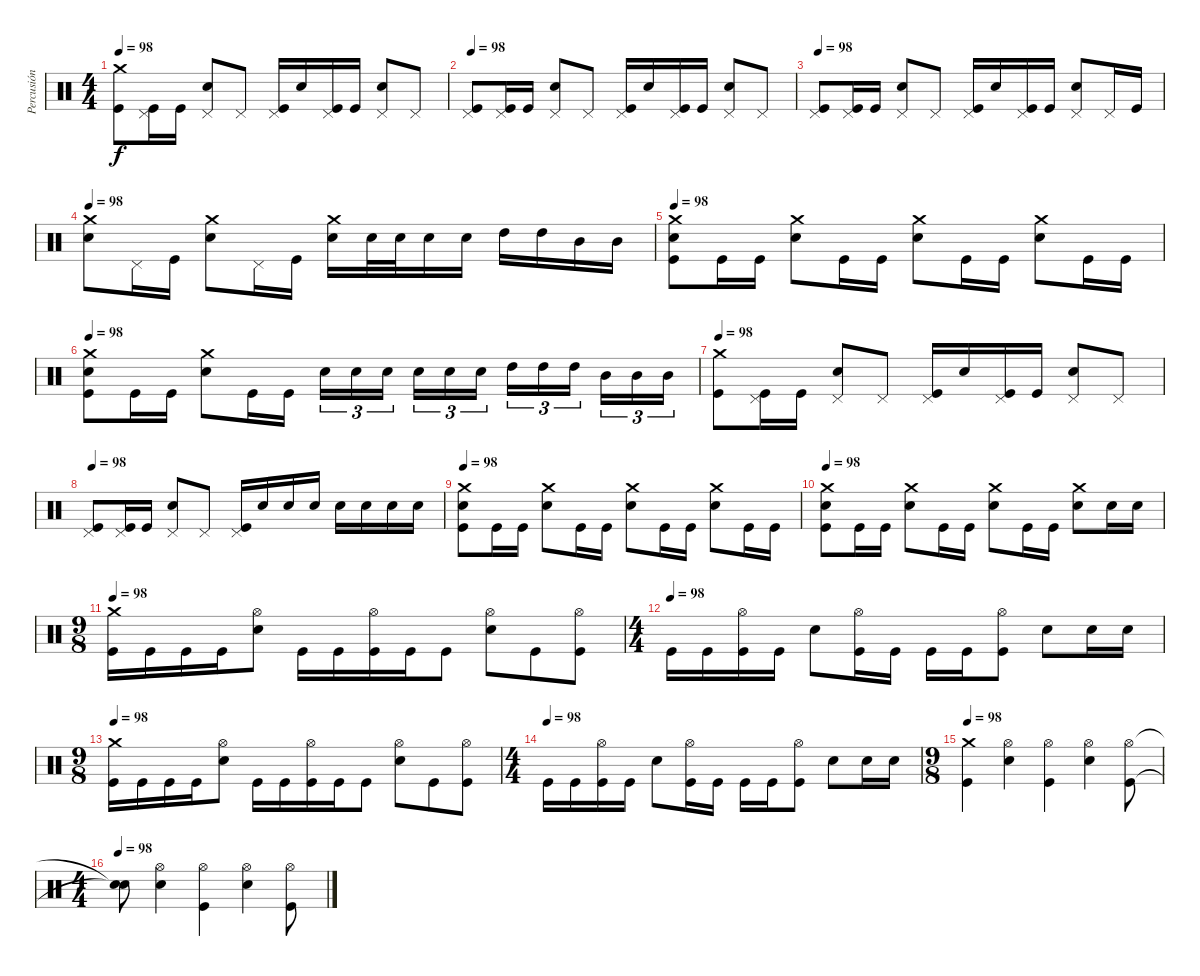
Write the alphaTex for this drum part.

\track ("Percusión" "Percusión") {instrument percussion}
\staff {score}
\articulation defaults
\ts (4 4)
\tempo 98
\clef neutral
\ks c
("Crash medium (hit)" "Kick (hit)").8{dy f} ("Pedal Hi-Hat (hit)" "Kick (hit)").16 "Kick (hit)".16 ("Pedal Hi-Hat (hit)" "Electric Snare (hit)").8 "Pedal Hi-Hat (hit)".8 ("Pedal Hi-Hat (hit)" "Kick (hit)").16 "Electric Snare (hit)".16 ("Pedal Hi-Hat (hit)" "Kick (hit)").16 "Kick (hit)".16 ("Pedal Hi-Hat (hit)" "Electric Snare (hit)").8 "Pedal Hi-Hat (hit)".8 |
\tempo 98
("Pedal Hi-Hat (hit)" "Kick (hit)").8 ("Pedal Hi-Hat (hit)" "Kick (hit)").16 "Kick (hit)".16 ("Pedal Hi-Hat (hit)" "Electric Snare (hit)").8 "Pedal Hi-Hat (hit)".8 ("Pedal Hi-Hat (hit)" "Kick (hit)").16 "Electric Snare (hit)".16 ("Pedal Hi-Hat (hit)" "Kick (hit)").16 "Kick (hit)".16 ("Pedal Hi-Hat (hit)" "Electric Snare (hit)").8 "Pedal Hi-Hat (hit)".8 |
\tempo 98
("Pedal Hi-Hat (hit)" "Kick (hit)").8 ("Pedal Hi-Hat (hit)" "Kick (hit)").16 "Kick (hit)".16 ("Pedal Hi-Hat (hit)" "Electric Snare (hit)").8 "Pedal Hi-Hat (hit)".8 ("Pedal Hi-Hat (hit)" "Kick (hit)").16 "Electric Snare (hit)".16 ("Pedal Hi-Hat (hit)" "Kick (hit)").16 "Kick (hit)".16 ("Pedal Hi-Hat (hit)" "Electric Snare (hit)").8 "Pedal Hi-Hat (hit)".16 "Kick (hit)".16 |
\tempo 98
("Crash medium (hit)" "Electric Snare (hit)").8 "Pedal Hi-Hat (hit)".16 "Kick (hit)".16 ("Crash medium (hit)" "Electric Snare (hit)").8 "Pedal Hi-Hat (hit)".16 "Kick (hit)".16 ("Crash medium (hit)" "Electric Snare (hit)").16 "Electric Snare (hit)".32 "Electric Snare (hit)".32 "Electric Snare (hit)".16 "Electric Snare (hit)".16 "High Tom (hit)".16 "High Tom (hit)".16 "Mid Tom (hit)".16 "Mid Tom (hit)".16 |
\tempo 98
("Crash medium (hit)" "Electric Snare (hit)" "Kick (hit)").8 "Kick (hit)".16 "Kick (hit)".16 ("Crash medium (hit)" "Electric Snare (hit)").8 "Kick (hit)".16 "Kick (hit)".16 ("Crash medium (hit)" "Electric Snare (hit)").8 "Kick (hit)".16 "Kick (hit)".16 ("Crash medium (hit)" "Electric Snare (hit)").8 "Kick (hit)".16 "Kick (hit)".16 |
\tempo 98
("Crash medium (hit)" "Electric Snare (hit)" "Kick (hit)").8 "Kick (hit)".16 "Kick (hit)".16 ("Crash medium (hit)" "Electric Snare (hit)").8 "Kick (hit)".16 "Kick (hit)".16 "Electric Snare (hit)".16{tu (3 2)} "Electric Snare (hit)".16{tu (3 2)} "Electric Snare (hit)".16{tu (3 2)} "Electric Snare (hit)".16{tu (3 2)} "Electric Snare (hit)".16{tu (3 2)} "Electric Snare (hit)".16{tu (3 2)} "High Tom (hit)".16{tu (3 2)} "High Tom (hit)".16{tu (3 2)} "High Tom (hit)".16{tu (3 2)} "Mid Tom (hit)".16{tu (3 2)} "Mid Tom (hit)".16{tu (3 2)} "Mid Tom (hit)".16{tu (3 2)} |
\tempo 98
("Crash medium (hit)" "Kick (hit)").8 ("Pedal Hi-Hat (hit)" "Kick (hit)").16 "Kick (hit)".16 ("Pedal Hi-Hat (hit)" "Electric Snare (hit)").8 "Pedal Hi-Hat (hit)".8 ("Pedal Hi-Hat (hit)" "Kick (hit)").16 "Electric Snare (hit)".16 ("Pedal Hi-Hat (hit)" "Kick (hit)").16 "Kick (hit)".16 ("Pedal Hi-Hat (hit)" "Electric Snare (hit)").8 "Pedal Hi-Hat (hit)".8 |
\tempo 98
("Pedal Hi-Hat (hit)" "Kick (hit)").8 ("Pedal Hi-Hat (hit)" "Kick (hit)").16 "Kick (hit)".16 ("Pedal Hi-Hat (hit)" "Electric Snare (hit)").8 "Pedal Hi-Hat (hit)".8 ("Pedal Hi-Hat (hit)" "Kick (hit)").16 "Electric Snare (hit)".16 "Electric Snare (hit)".16 "Electric Snare (hit)".16 "Electric Snare (hit)".16 "Electric Snare (hit)".16 "Electric Snare (hit)".16 "Electric Snare (hit)".16 |
\tempo 98
("Crash medium (hit)" "Electric Snare (hit)" "Kick (hit)").8 "Kick (hit)".16 "Kick (hit)".16 ("Crash medium (hit)" "Electric Snare (hit)").8 "Kick (hit)".16 "Kick (hit)".16 ("Crash medium (hit)" "Electric Snare (hit)").8 "Kick (hit)".16 "Kick (hit)".16 ("Crash medium (hit)" "Electric Snare (hit)").8 "Kick (hit)".16 "Kick (hit)".16 |
\tempo 98
("Crash medium (hit)" "Electric Snare (hit)" "Kick (hit)").8 "Kick (hit)".16 "Kick (hit)".16 ("Crash medium (hit)" "Electric Snare (hit)").8 "Kick (hit)".16 "Kick (hit)".16 ("Crash medium (hit)" "Electric Snare (hit)").8 "Kick (hit)".16 "Kick (hit)".16 ("Crash medium (hit)" "Electric Snare (hit)").8 "Electric Snare (hit)".16 "Electric Snare (hit)".16 |
\ts (9 8)
\tempo 98
("Crash medium (hit)" "Kick (hit)").16 "Kick (hit)".16 "Kick (hit)".16 "Kick (hit)".16 ("Hi-Hat (open)" "Electric Snare (hit)").8 "Kick (hit)".16 "Kick (hit)".16 ("Hi-Hat (open)" "Kick (hit)").16 "Kick (hit)".16 "Kick (hit)".8 ("Hi-Hat (open)" "Electric Snare (hit)").8 "Kick (hit)".8 ("Hi-Hat (open)" "Kick (hit)").8 |
\ts (4 4)
\tempo (98)
"Kick (hit)".16 "Kick (hit)".16 ("Hi-Hat (open)" "Kick (hit)").16 "Kick (hit)".16 "Electric Snare (hit)".8 ("Hi-Hat (open)" "Kick (hit)").16 "Kick (hit)".16 "Kick (hit)".16 "Kick (hit)".16 ("Hi-Hat (open)" "Kick (hit)").8 "Electric Snare (hit)".8 "Electric Snare (hit)".16 "Electric Snare (hit)".16 |
\ts (9 8)
\tempo 98
("Crash medium (hit)" "Kick (hit)").16 "Kick (hit)".16 "Kick (hit)".16 "Kick (hit)".16 ("Hi-Hat (open)" "Electric Snare (hit)").8 "Kick (hit)".16 "Kick (hit)".16 ("Hi-Hat (open)" "Kick (hit)").16 "Kick (hit)".16 "Kick (hit)".8 ("Hi-Hat (open)" "Electric Snare (hit)").8 "Kick (hit)".8 ("Hi-Hat (open)" "Kick (hit)").8 |
\ts (4 4)
\tempo (98)
"Kick (hit)".16 "Kick (hit)".16 ("Hi-Hat (open)" "Kick (hit)").16 "Kick (hit)".16 "Electric Snare (hit)".8 ("Hi-Hat (open)" "Kick (hit)").16 "Kick (hit)".16 "Kick (hit)".16 "Kick (hit)".16 ("Hi-Hat (open)" "Kick (hit)").8 "Electric Snare (hit)".8 "Electric Snare (hit)".16 "Electric Snare (hit)".16 |
\ts (9 8)
\tempo 98
("Crash medium (hit)" "Kick (hit)").4 ("Hi-Hat (open)" "Electric Snare (hit)").4 ("Hi-Hat (open)" "Kick (hit)").4 ("Hi-Hat (open)" "Electric Snare (hit)").4 ("Hi-Hat (open)" "Kick (hit)").8 |
\ts (4 4)
\tempo 98
("Snare (hit)"{t} "Snare (hit)"{t}).8 ("Hi-Hat (open)" "Electric Snare (hit)").4 ("Hi-Hat (open)" "Kick (hit)").4 ("Hi-Hat (open)" "Electric Snare (hit)").4 ("Hi-Hat (open)" "Kick (hit)").8
